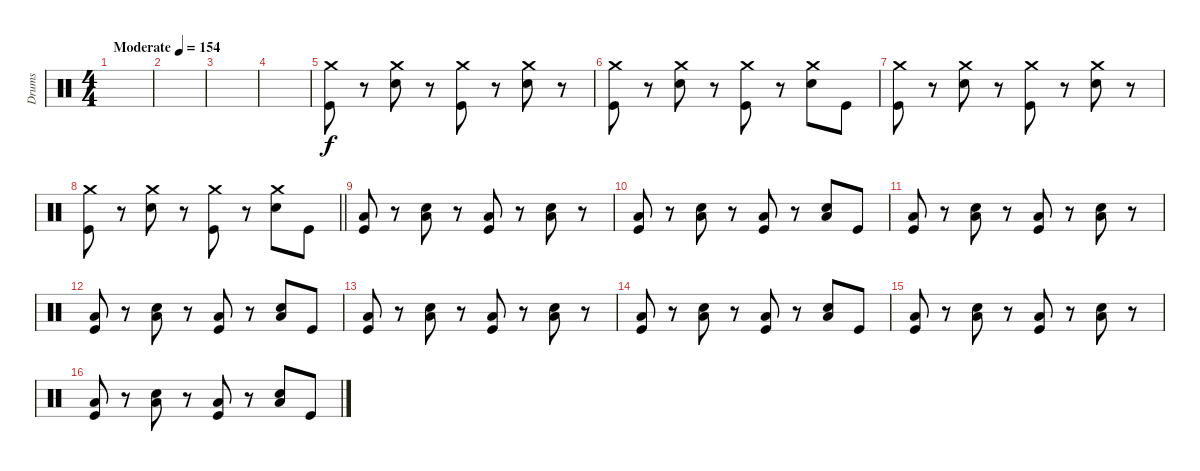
\track ("Drums" "Drums") {instrument percussion}
\staff {score}
\articulation defaults
\ts (4 4)
\tempo (154 "Moderate")
\clef neutral
\ks c
|
|
|
|
("Crash medium (hit)" "Kick (hit)").8 r.8 ("Crash medium (hit)" "Electric Snare (hit)").8 r.8 ("Crash medium (hit)" "Kick (hit)").8 r.8 ("Crash medium (hit)" "Electric Snare (hit)").8 r.8 |
("Crash medium (hit)" "Kick (hit)").8 r.8 ("Crash medium (hit)" "Electric Snare (hit)").8 r.8 ("Crash medium (hit)" "Kick (hit)").8 r.8 ("Crash medium (hit)" "Electric Snare (hit)").8 "Kick (hit)".8 |
("Crash medium (hit)" "Kick (hit)").8 r.8 ("Crash medium (hit)" "Electric Snare (hit)").8 r.8 ("Crash medium (hit)" "Kick (hit)").8 r.8 ("Crash medium (hit)" "Electric Snare (hit)").8 r.8 |
\barLineRight lightlight
("Crash medium (hit)" "Kick (hit)").8 r.8 ("Crash medium (hit)" "Electric Snare (hit)").8 r.8 ("Crash medium (hit)" "Kick (hit)").8 r.8 ("Crash medium (hit)" "Electric Snare (hit)").8 "Kick (hit)".8 |
("Low Tom (hit)" "Kick (hit)").8 r.8 ("Low Tom (hit)" "Electric Snare (hit)").8 r.8 ("Low Tom (hit)" "Kick (hit)").8 r.8 ("Low Tom (hit)" "Electric Snare (hit)").8 r.8 |
("Low Tom (hit)" "Kick (hit)").8 r.8 ("Low Tom (hit)" "Electric Snare (hit)").8 r.8 ("Low Tom (hit)" "Kick (hit)").8 r.8 ("Low Tom (hit)" "Electric Snare (hit)").8 "Kick (hit)".8 |
("Low Tom (hit)" "Kick (hit)").8 r.8 ("Low Tom (hit)" "Electric Snare (hit)").8 r.8 ("Low Tom (hit)" "Kick (hit)").8 r.8 ("Low Tom (hit)" "Electric Snare (hit)").8 r.8 |
("Low Tom (hit)" "Kick (hit)").8 r.8 ("Low Tom (hit)" "Electric Snare (hit)").8 r.8 ("Low Tom (hit)" "Kick (hit)").8 r.8 ("Low Tom (hit)" "Electric Snare (hit)").8 "Kick (hit)".8 |
("Low Tom (hit)" "Kick (hit)").8 r.8 ("Low Tom (hit)" "Electric Snare (hit)").8 r.8 ("Low Tom (hit)" "Kick (hit)").8 r.8 ("Low Tom (hit)" "Electric Snare (hit)").8 r.8 |
("Low Tom (hit)" "Kick (hit)").8 r.8 ("Low Tom (hit)" "Electric Snare (hit)").8 r.8 ("Low Tom (hit)" "Kick (hit)").8 r.8 ("Low Tom (hit)" "Electric Snare (hit)").8 "Kick (hit)".8 |
("Low Tom (hit)" "Kick (hit)").8 r.8 ("Low Tom (hit)" "Electric Snare (hit)").8 r.8 ("Low Tom (hit)" "Kick (hit)").8 r.8 ("Low Tom (hit)" "Electric Snare (hit)").8 r.8 |
("Low Tom (hit)" "Kick (hit)").8 r.8 ("Low Tom (hit)" "Electric Snare (hit)").8 r.8 ("Low Tom (hit)" "Kick (hit)").8 r.8 ("Low Tom (hit)" "Electric Snare (hit)").8 "Kick (hit)".8
